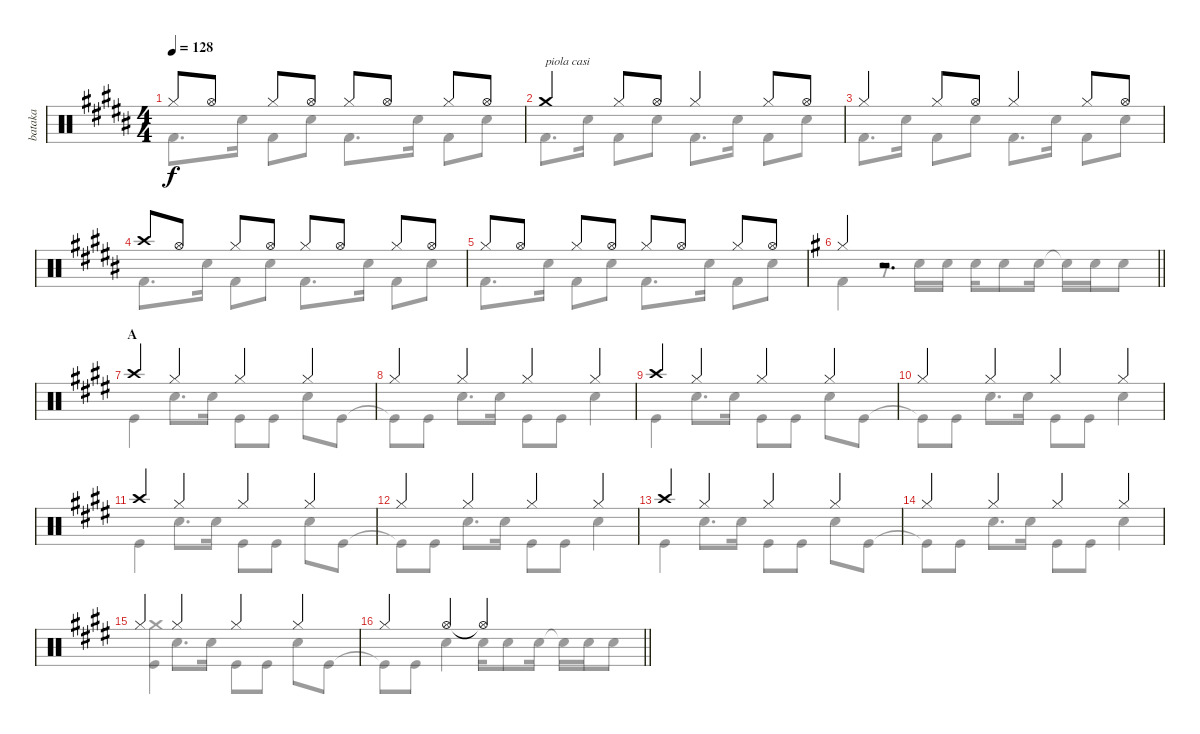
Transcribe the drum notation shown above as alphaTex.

\track ("bataka" "bataka") {mute instrument percussion}
\staff {score}
\articulation defaults
\voice
\ts (4 4)
\tempo 128
\clef neutral
\ks b "Hi-Hat (closed)".8{dy f} "Hi-Hat (open)".8 "Hi-Hat (closed)".8 "Hi-Hat (open)".8 "Hi-Hat (closed)".8 "Hi-Hat (open)".8 "Hi-Hat (closed)".8 "Hi-Hat (open)".8
|
"Crash medium (hit)".4{txt "piola casi"} "Hi-Hat (closed)".8 "Hi-Hat (open)".8 "Hi-Hat (closed)".4 "Hi-Hat (closed)".8 "Hi-Hat (open)".8 |
"Hi-Hat (closed)".4 "Hi-Hat (closed)".8 "Hi-Hat (open)".8 "Hi-Hat (closed)".4 "Hi-Hat (closed)".8 "Hi-Hat (open)".8 |
"Crash high (hit)".8 "Hi-Hat (open)".8 "Hi-Hat (closed)".8 "Hi-Hat (open)".8 "Hi-Hat (closed)".8 "Hi-Hat (open)".8 "Hi-Hat (closed)".8 "Hi-Hat (open)".8 |
"Hi-Hat (closed)".8 "Hi-Hat (open)".8 "Hi-Hat (closed)".8 "Hi-Hat (open)".8 "Hi-Hat (closed)".8 "Hi-Hat (open)".8 "Hi-Hat (closed)".8 "Hi-Hat (open)".8 |
\barLineRight lightlight
\ks eminor "Hi-Hat (closed)".4
r.2{d} |
\section ("" "A")
\ks e "Crash high (hit)".4 "Hi-Hat (closed)".4 "Hi-Hat (closed)".4 "Hi-Hat (closed)".4
|
"Hi-Hat (closed)".4 "Hi-Hat (closed)".4 "Hi-Hat (closed)".4 "Hi-Hat (closed)".4 |
"Crash high (hit)".4 "Hi-Hat (closed)".4 "Hi-Hat (closed)".4 "Hi-Hat (closed)".4 |
"Hi-Hat (closed)".4 "Hi-Hat (closed)".4 "Hi-Hat (closed)".4 "Hi-Hat (closed)".4 |
"Crash high (hit)".4 "Hi-Hat (closed)".4 "Hi-Hat (closed)".4 "Hi-Hat (closed)".4 |
"Hi-Hat (closed)".4 "Hi-Hat (closed)".4 "Hi-Hat (closed)".4 "Hi-Hat (closed)".4 |
"Crash high (hit)".4 "Hi-Hat (closed)".4 "Hi-Hat (closed)".4 "Hi-Hat (closed)".4 |
"Hi-Hat (closed)".4 "Hi-Hat (closed)".4 "Hi-Hat (closed)".4 "Hi-Hat (closed)".4 |
"Hi-Hat (closed)".4 "Hi-Hat (closed)".4 "Hi-Hat (closed)".4 "Hi-Hat (closed)".4 |
\barLineRight lightlight "Hi-Hat (closed)".4 "Hi-Hat (open)".4 "Hi-Hat (open)"{t}.2
\voice
\clef neutral
\ottava regular
\simile none
\ks b "Kick (hit) 2".8{d dy f} "Snare (hit) 2".16 "Kick (hit) 2".8 "Snare (hit) 2".8 "Kick (hit) 2".8{d} "Snare (hit) 2".16 "Kick (hit) 2".8 "Snare (hit) 2".8
|
"Kick (hit) 2".8{d} "Snare (hit) 2".16 "Kick (hit) 2".8 "Snare (hit) 2".8 "Kick (hit) 2".8{d} "Snare (hit) 2".16 "Kick (hit) 2".8 "Snare (hit) 2".8 |
"Kick (hit) 2".8{d} "Snare (hit) 2".16 "Kick (hit) 2".8 "Snare (hit) 2".8 "Kick (hit) 2".8{d} "Snare (hit) 2".16 "Kick (hit) 2".8 "Snare (hit) 2".8 |
"Kick (hit) 2".8{d} "Snare (hit) 2".16 "Kick (hit) 2".8 "Snare (hit) 2".8 "Kick (hit) 2".8{d} "Snare (hit) 2".16 "Kick (hit) 2".8 "Snare (hit) 2".8 |
"Kick (hit) 2".8{d} "Snare (hit) 2".16 "Kick (hit) 2".8 "Snare (hit) 2".8 "Kick (hit) 2".8{d} "Snare (hit) 2".16 "Kick (hit) 2".8 "Snare (hit) 2".8 |
\barLineRight lightlight
\ks eminor "Kick (hit) 2".4
r.8 "Snare (hit) 2".16 "Snare (hit) 2".16 "Snare (hit) 2".16 "Snare (hit) 2".8 "Snare (hit) 2".16 "Snare (hit) 2"{t}.16 "Snare (hit) 2".16 "Snare (hit) 2".8 |
\ks e "Kick (hit)".4 "Snare (hit) 2".8{d} "Snare (hit) 2".16 "Kick (hit)".8 "Kick (hit)".8 "Snare (hit) 2".8 "Kick (hit)".8
|
"Kick (hit)"{t}.8 "Kick (hit)".8 "Snare (hit) 2".8{d} "Snare (hit) 2".16 "Kick (hit)".8 "Kick (hit)".8 "Snare (hit) 2".4 |
"Kick (hit)".4 "Snare (hit) 2".8{d} "Snare (hit) 2".16 "Kick (hit)".8 "Kick (hit)".8 "Snare (hit) 2".8 "Kick (hit)".8 |
"Kick (hit)"{t}.8 "Kick (hit)".8 "Snare (hit) 2".8{d} "Snare (hit) 2".16 "Kick (hit)".8 "Kick (hit)".8 "Snare (hit) 2".4 |
"Kick (hit)".4 "Snare (hit) 2".8{d} "Snare (hit) 2".16 "Kick (hit)".8 "Kick (hit)".8 "Snare (hit) 2".8 "Kick (hit)".8 |
"Kick (hit)"{t}.8 "Kick (hit)".8 "Snare (hit) 2".8{d} "Snare (hit) 2".16 "Kick (hit)".8 "Kick (hit)".8 "Snare (hit) 2".4 |
"Kick (hit)".4 "Snare (hit) 2".8{d} "Snare (hit) 2".16 "Kick (hit)".8 "Kick (hit)".8 "Snare (hit) 2".8 "Kick (hit)".8 |
"Kick (hit)"{t}.8 "Kick (hit)".8 "Snare (hit) 2".8{d} "Snare (hit) 2".16 "Kick (hit)".8 "Kick (hit)".8 "Snare (hit) 2".4 |
("Kick (hit)" "Crash medium (hit)").4 "Snare (hit) 2".8{d} "Snare (hit) 2".16 "Kick (hit)".8 "Kick (hit)".8 "Snare (hit) 2".8 "Kick (hit)".8 |
\barLineRight lightlight "Kick (hit)"{t}.8 "Kick (hit)".8 "Snare (hit) 2".4 "Snare (hit) 2".16 "Snare (hit) 2".8 "Snare (hit) 2".16 "Snare (hit) 2"{t}.16 "Snare (hit) 2".16 "Snare (hit) 2".8
